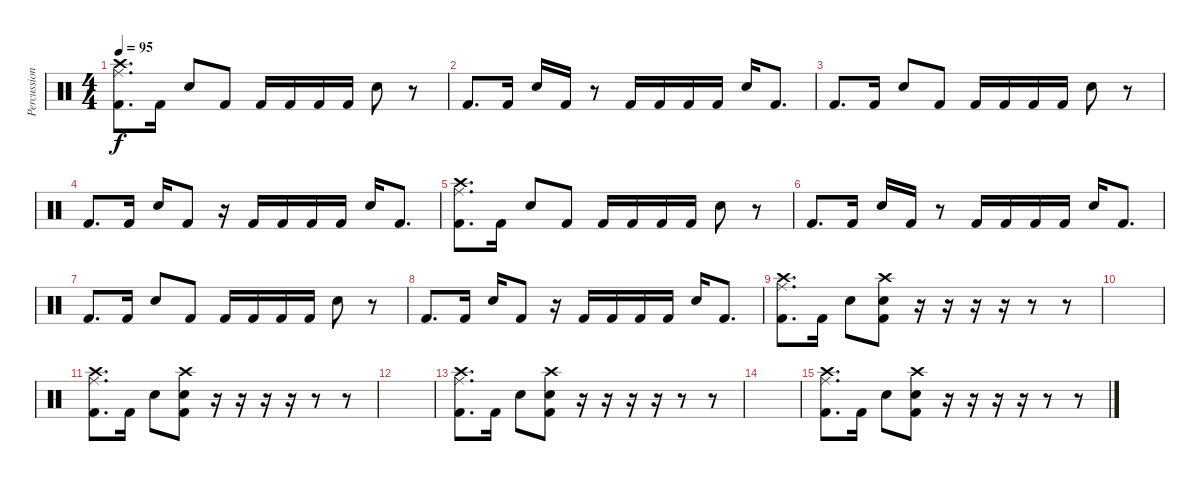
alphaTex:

\track ("Percussions" "Percussion") {instrument percussion}
\staff {score}
\articulation defaults
\ts (4 4)
\tempo 95
\clef neutral
\ks c
("Crash high (hit)" "Ride (middle)" "Kick (hit) 2").8{d dy f} "Kick (hit) 2".16 "Electric Snare (hit)".8 "Kick (hit) 2".8 "Kick (hit) 2".16 "Kick (hit) 2".16 "Kick (hit) 2".16 "Kick (hit) 2".16 "Electric Snare (hit)".8 r.8 |
"Kick (hit) 2".8{d} "Kick (hit) 2".16 "Electric Snare (hit)".16 "Kick (hit) 2".16 r.8 "Kick (hit) 2".16 "Kick (hit) 2".16 "Kick (hit) 2".16 "Kick (hit) 2".16 "Electric Snare (hit)".16 "Kick (hit) 2".8{d} |
"Kick (hit) 2".8{d} "Kick (hit) 2".16 "Electric Snare (hit)".8 "Kick (hit) 2".8 "Kick (hit) 2".16 "Kick (hit) 2".16 "Kick (hit) 2".16 "Kick (hit) 2".16 "Electric Snare (hit)".8 r.8 |
"Kick (hit) 2".8{d} "Kick (hit) 2".16 "Electric Snare (hit)".16 "Kick (hit) 2".8 r.16 "Kick (hit) 2".16 "Kick (hit) 2".16 "Kick (hit) 2".16 "Kick (hit) 2".16 "Electric Snare (hit)".16 "Kick (hit) 2".8{d} |
("Crash high (hit)" "Ride (middle)" "Kick (hit) 2").8{d} "Kick (hit) 2".16 "Electric Snare (hit)".8 "Kick (hit) 2".8 "Kick (hit) 2".16 "Kick (hit) 2".16 "Kick (hit) 2".16 "Kick (hit) 2".16 "Electric Snare (hit)".8 r.8 |
"Kick (hit) 2".8{d} "Kick (hit) 2".16 "Electric Snare (hit)".16 "Kick (hit) 2".16 r.8 "Kick (hit) 2".16 "Kick (hit) 2".16 "Kick (hit) 2".16 "Kick (hit) 2".16 "Electric Snare (hit)".16 "Kick (hit) 2".8{d} |
"Kick (hit) 2".8{d} "Kick (hit) 2".16 "Electric Snare (hit)".8 "Kick (hit) 2".8 "Kick (hit) 2".16 "Kick (hit) 2".16 "Kick (hit) 2".16 "Kick (hit) 2".16 "Electric Snare (hit)".8 r.8 |
"Kick (hit) 2".8{d} "Kick (hit) 2".16 "Electric Snare (hit)".16 "Kick (hit) 2".8 r.16 "Kick (hit) 2".16 "Kick (hit) 2".16 "Kick (hit) 2".16 "Kick (hit) 2".16 "Electric Snare (hit)".16 "Kick (hit) 2".8{d} |
("Crash high (hit)" "Ride (middle)" "Kick (hit) 2").8{d} "Kick (hit) 2".16 "Electric Snare (hit)".8 ("Crash high (hit)" "Electric Snare (hit)" "Kick (hit) 2").8 r.16 r.16 r.16 r.16 r.8 r.8 |
|
("Crash high (hit)" "Ride (middle)" "Kick (hit) 2").8{d} "Kick (hit) 2".16 "Electric Snare (hit)".8 ("Crash high (hit)" "Electric Snare (hit)" "Kick (hit) 2").8 r.16 r.16 r.16 r.16 r.8 r.8 |
|
("Crash high (hit)" "Ride (middle)" "Kick (hit) 2").8{d} "Kick (hit) 2".16 "Electric Snare (hit)".8 ("Crash high (hit)" "Electric Snare (hit)" "Kick (hit) 2").8 r.16 r.16 r.16 r.16 r.8 r.8 |
|
("Crash high (hit)" "Ride (middle)" "Kick (hit) 2").8{d} "Kick (hit) 2".16 "Electric Snare (hit)".8 ("Crash high (hit)" "Electric Snare (hit)" "Kick (hit) 2").8 r.16 r.16 r.16 r.16 r.8 r.8
